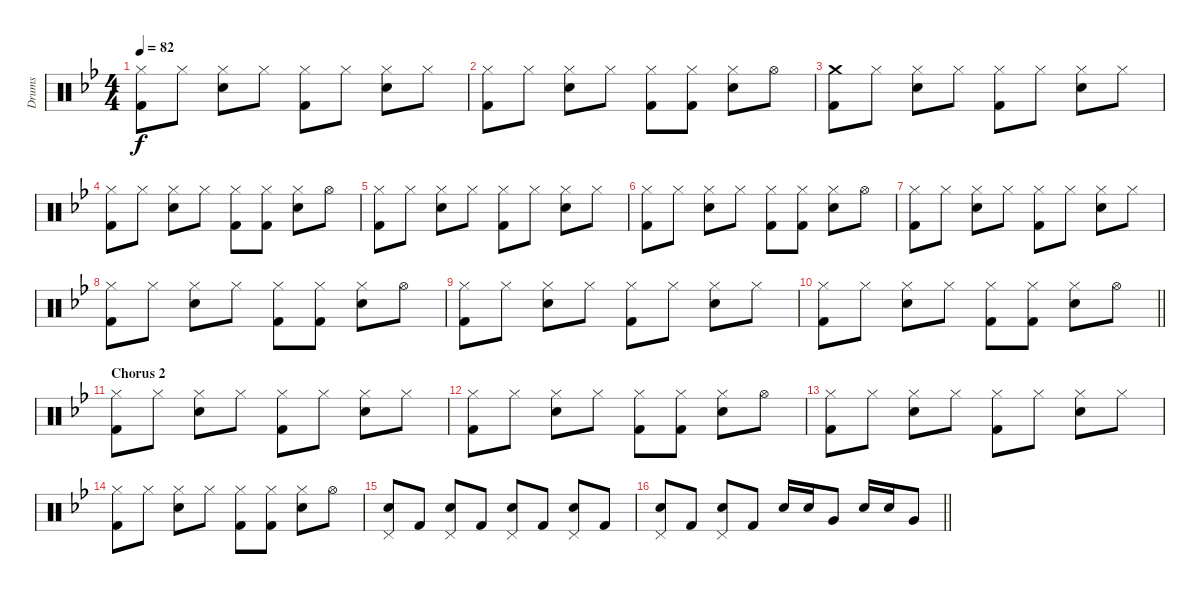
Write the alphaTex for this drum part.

\track ("Drums" "Drums") {instrument percussion}
\staff {score}
\articulation defaults
\ts (4 4)
\tempo 82
\clef neutral
\ks gminor
("Hi-Hat (closed)" "Kick (hit) 2").8{dy f} "Hi-Hat (closed)".8 ("Hi-Hat (closed)" "Snare (hit) 2").8 "Hi-Hat (closed)".8 ("Hi-Hat (closed)" "Kick (hit) 2").8 "Hi-Hat (closed)".8 ("Hi-Hat (closed)" "Snare (hit) 2").8 "Hi-Hat (closed)".8 |
("Hi-Hat (closed)" "Kick (hit) 2").8 "Hi-Hat (closed)".8 ("Hi-Hat (closed)" "Snare (hit) 2").8 "Hi-Hat (closed)".8 ("Hi-Hat (closed)" "Kick (hit) 2").8 ("Hi-Hat (closed)" "Kick (hit) 2").8 ("Hi-Hat (closed)" "Snare (hit) 2").8 "Hi-Hat (open)".8 |
("Crash medium (hit)" "Kick (hit) 2").8 "Hi-Hat (closed)".8 ("Hi-Hat (closed)" "Snare (hit) 2").8 "Hi-Hat (closed)".8 ("Hi-Hat (closed)" "Kick (hit) 2").8 "Hi-Hat (closed)".8 ("Hi-Hat (closed)" "Snare (hit) 2").8 "Hi-Hat (closed)".8 |
("Hi-Hat (closed)" "Kick (hit) 2").8 "Hi-Hat (closed)".8 ("Hi-Hat (closed)" "Snare (hit) 2").8 "Hi-Hat (closed)".8 ("Hi-Hat (closed)" "Kick (hit) 2").8 ("Hi-Hat (closed)" "Kick (hit) 2").8 ("Hi-Hat (closed)" "Snare (hit) 2").8 "Hi-Hat (open)".8 |
("Hi-Hat (closed)" "Kick (hit) 2").8 "Hi-Hat (closed)".8 ("Hi-Hat (closed)" "Snare (hit) 2").8 "Hi-Hat (closed)".8 ("Hi-Hat (closed)" "Kick (hit) 2").8 "Hi-Hat (closed)".8 ("Hi-Hat (closed)" "Snare (hit) 2").8 "Hi-Hat (closed)".8 |
("Hi-Hat (closed)" "Kick (hit) 2").8 "Hi-Hat (closed)".8 ("Hi-Hat (closed)" "Snare (hit) 2").8 "Hi-Hat (closed)".8 ("Hi-Hat (closed)" "Kick (hit) 2").8 ("Hi-Hat (closed)" "Kick (hit) 2").8 ("Hi-Hat (closed)" "Snare (hit) 2").8 "Hi-Hat (open)".8 |
("Hi-Hat (closed)" "Kick (hit) 2").8 "Hi-Hat (closed)".8 ("Hi-Hat (closed)" "Snare (hit) 2").8 "Hi-Hat (closed)".8 ("Hi-Hat (closed)" "Kick (hit) 2").8 "Hi-Hat (closed)".8 ("Hi-Hat (closed)" "Snare (hit) 2").8 "Hi-Hat (closed)".8 |
("Hi-Hat (closed)" "Kick (hit) 2").8 "Hi-Hat (closed)".8 ("Hi-Hat (closed)" "Snare (hit) 2").8 "Hi-Hat (closed)".8 ("Hi-Hat (closed)" "Kick (hit) 2").8 ("Hi-Hat (closed)" "Kick (hit) 2").8 ("Hi-Hat (closed)" "Snare (hit) 2").8 "Hi-Hat (open)".8 |
("Hi-Hat (closed)" "Kick (hit) 2").8 "Hi-Hat (closed)".8 ("Hi-Hat (closed)" "Snare (hit) 2").8 "Hi-Hat (closed)".8 ("Hi-Hat (closed)" "Kick (hit) 2").8 "Hi-Hat (closed)".8 ("Hi-Hat (closed)" "Snare (hit) 2").8 "Hi-Hat (closed)".8 |
\barLineRight lightlight
("Hi-Hat (closed)" "Kick (hit) 2").8 "Hi-Hat (closed)".8 ("Hi-Hat (closed)" "Snare (hit) 2").8 "Hi-Hat (closed)".8 ("Hi-Hat (closed)" "Kick (hit) 2").8 ("Hi-Hat (closed)" "Kick (hit) 2").8 ("Hi-Hat (closed)" "Snare (hit) 2").8 "Hi-Hat (open)".8 |
\section ("" "Chorus 2")
("Hi-Hat (closed)" "Kick (hit) 2").8 "Hi-Hat (closed)".8 ("Hi-Hat (closed)" "Snare (hit) 2").8 "Hi-Hat (closed)".8 ("Hi-Hat (closed)" "Kick (hit) 2").8 "Hi-Hat (closed)".8 ("Hi-Hat (closed)" "Snare (hit) 2").8 "Hi-Hat (closed)".8 |
("Hi-Hat (closed)" "Kick (hit) 2").8 "Hi-Hat (closed)".8 ("Hi-Hat (closed)" "Snare (hit) 2").8 "Hi-Hat (closed)".8 ("Hi-Hat (closed)" "Kick (hit) 2").8 ("Hi-Hat (closed)" "Kick (hit) 2").8 ("Hi-Hat (closed)" "Snare (hit) 2").8 "Hi-Hat (open)".8 |
("Hi-Hat (closed)" "Kick (hit) 2").8 "Hi-Hat (closed)".8 ("Hi-Hat (closed)" "Snare (hit) 2").8 "Hi-Hat (closed)".8 ("Hi-Hat (closed)" "Kick (hit) 2").8 "Hi-Hat (closed)".8 ("Hi-Hat (closed)" "Snare (hit) 2").8 "Hi-Hat (closed)".8 |
("Hi-Hat (closed)" "Kick (hit) 2").8 "Hi-Hat (closed)".8 ("Hi-Hat (closed)" "Snare (hit) 2").8 "Hi-Hat (closed)".8 ("Hi-Hat (closed)" "Kick (hit) 2").8 ("Hi-Hat (closed)" "Kick (hit) 2").8 ("Hi-Hat (closed)" "Snare (hit) 2").8 "Hi-Hat (open)".8 |
("Pedal Hi-Hat (hit)" "Snare (hit) 2").8 "Kick (hit) 2".8 ("Pedal Hi-Hat (hit)" "Snare (hit) 2").8 "Kick (hit) 2".8 ("Pedal Hi-Hat (hit)" "Snare (hit) 2").8 "Kick (hit) 2".8 ("Pedal Hi-Hat (hit)" "Snare (hit) 2").8 "Kick (hit) 2".8 |
\barLineRight lightlight
("Pedal Hi-Hat (hit)" "Snare (hit) 2").8 "Kick (hit) 2".8 ("Pedal Hi-Hat (hit)" "Snare (hit) 2").8 "Kick (hit) 2".8 "Snare (hit) 2".16 "Snare (hit) 2".16 "Very Low Tom (hit)".8 "Snare (hit) 2".16 "Snare (hit) 2".16 "Very Low Tom (hit)".8
